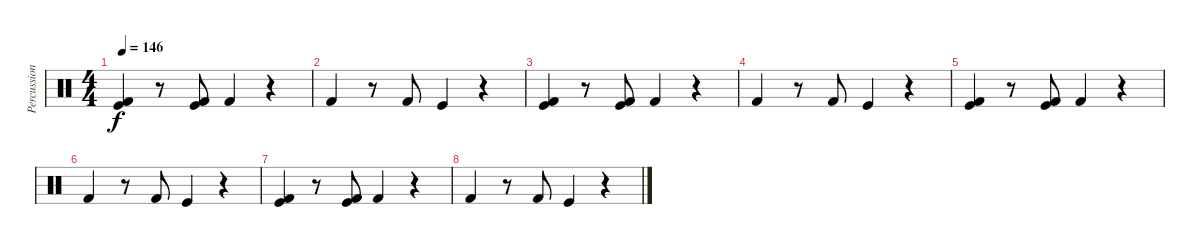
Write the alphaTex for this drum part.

\track ("Percussion" "Percussion") {instrument percussion}
\staff {score}
\articulation defaults
\ts (4 4)
\tempo 146
\clef neutral
\ks c
("Kick (hit)" "Kick (hit) 2").4{dy f} r.8 ("Kick (hit)" "Kick (hit) 2").8 "Kick (hit) 2".4 r.4 |
"Kick (hit) 2".4 r.8 "Kick (hit) 2".8 "Kick (hit)".4 r.4 |
("Kick (hit)" "Kick (hit) 2").4 r.8 ("Kick (hit)" "Kick (hit) 2").8 "Kick (hit) 2".4 r.4 |
"Kick (hit) 2".4 r.8 "Kick (hit) 2".8 "Kick (hit)".4 r.4 |
("Kick (hit)" "Kick (hit) 2").4 r.8 ("Kick (hit)" "Kick (hit) 2").8 "Kick (hit) 2".4 r.4 |
"Kick (hit) 2".4 r.8 "Kick (hit) 2".8 "Kick (hit)".4 r.4 |
("Kick (hit)" "Kick (hit) 2").4 r.8 ("Kick (hit)" "Kick (hit) 2").8 "Kick (hit) 2".4 r.4 |
"Kick (hit) 2".4 r.8 "Kick (hit) 2".8 "Kick (hit)".4 r.4
